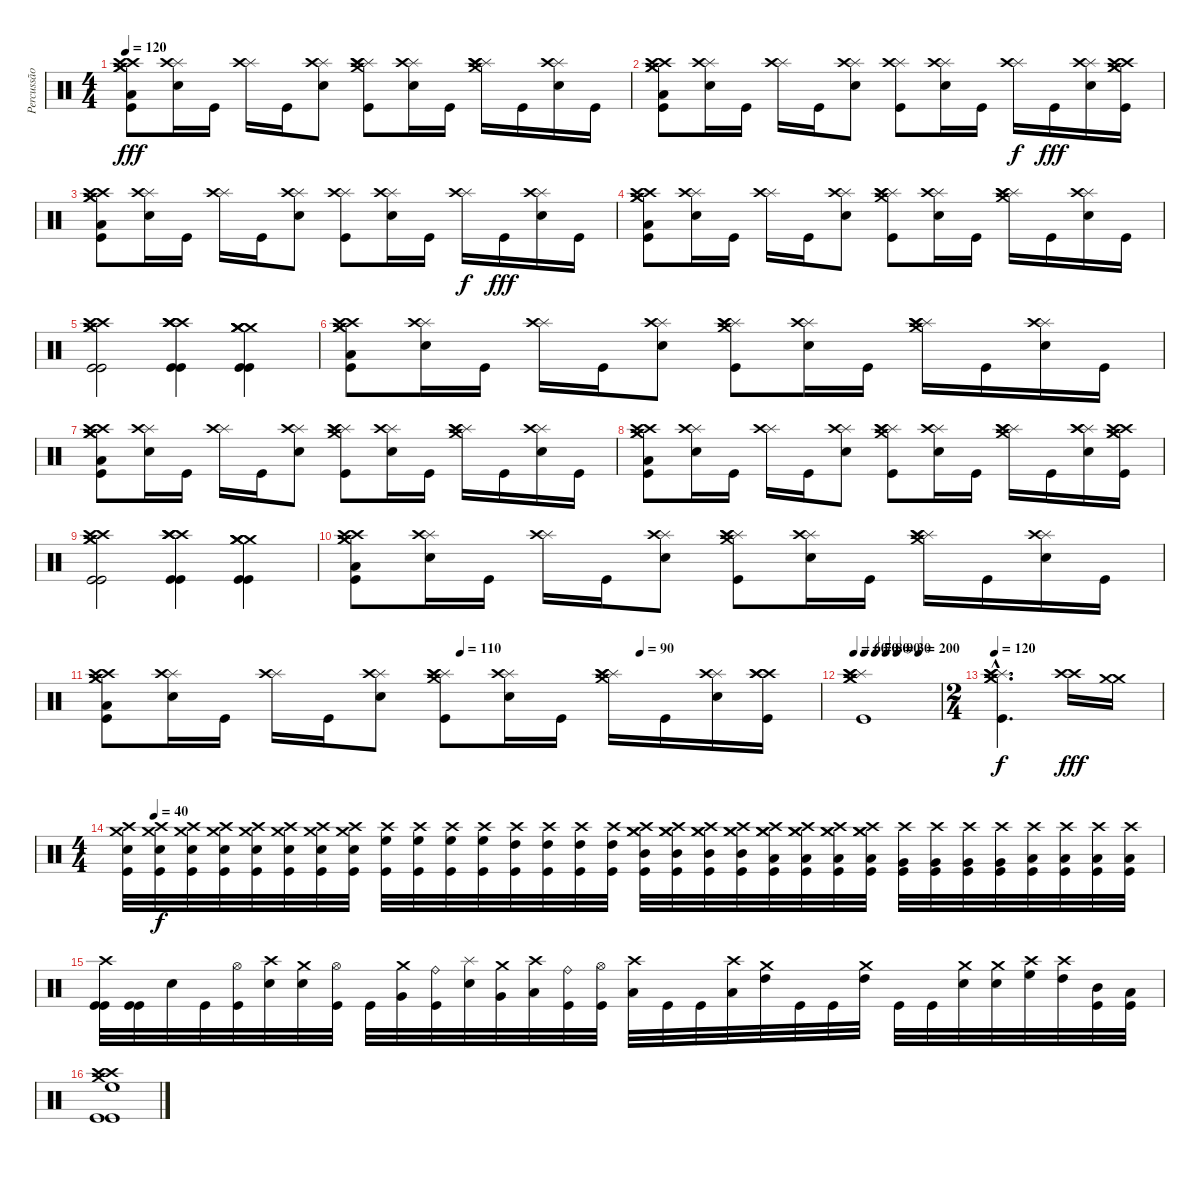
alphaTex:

\track ("Percussão" "Percussão") {instrument percussion}
\staff {score}
\articulation defaults
\ts (4 4)
\tempo 120
\clef neutral
\ks c
("Crash high (hit)" "Crash high (hit)" "Crash medium (hit)" "Crash medium (hit)" "Low Floor Tom (hit)" "Kick (hit)").8{dy fff} ("Splash (hit)" "Crash high (hit)" "Snare (hit) 2").16 "Kick (hit)".16 ("Splash (hit)" "Crash high (hit)").16 "Kick (hit)".16 ("Splash (hit)" "Crash high (hit)" "Snare (hit) 2").8 ("Splash (hit)" "Crash high (hit)" "Crash high (hit)" "Crash medium (hit)" "Kick (hit)").8 ("Splash (hit)" "Crash high (hit)" "Snare (hit) 2").16 "Kick (hit)".16 ("Splash (hit)" "Crash high (hit)" "Crash high (hit)" "Crash medium (hit)").16 "Kick (hit)".16 ("Splash (hit)" "Crash high (hit)" "Snare (hit) 2").16 "Kick (hit)".16 |
("Crash high (hit)" "Crash high (hit)" "Crash medium (hit)" "Crash medium (hit)" "Low Floor Tom (hit)" "Kick (hit)").8 ("Splash (hit)" "Crash high (hit)" "Snare (hit) 2").16 "Kick (hit)".16 ("Splash (hit)" "Crash high (hit)").16 "Kick (hit)".16 ("Splash (hit)" "Crash high (hit)" "Snare (hit) 2").8 ("Splash (hit)" "Crash high (hit)" "Kick (hit)").8 ("Splash (hit)" "Crash high (hit)" "Snare (hit) 2").16 "Kick (hit)".16 ("Splash (hit)" "Crash high (hit)").16{dy f} "Kick (hit)".16{dy fff} ("Splash (hit)" "Crash high (hit)" "Snare (hit) 2").16 ("Crash high (hit)" "Crash high (hit)" "Crash medium (hit)" "Crash medium (hit)" "Kick (hit)").16 |
("Crash high (hit)" "Crash high (hit)" "Crash medium (hit)" "Crash medium (hit)" "Low Floor Tom (hit)" "Kick (hit)").8 ("Splash (hit)" "Crash high (hit)" "Snare (hit) 2").16 "Kick (hit)".16 ("Splash (hit)" "Crash high (hit)").16 "Kick (hit)".16 ("Splash (hit)" "Crash high (hit)" "Snare (hit) 2").8 ("Splash (hit)" "Crash high (hit)" "Kick (hit)").8 ("Splash (hit)" "Crash high (hit)" "Snare (hit) 2").16 "Kick (hit)".16 ("Splash (hit)" "Crash high (hit)").16{dy f} "Kick (hit)".16{dy fff} ("Splash (hit)" "Crash high (hit)" "Snare (hit) 2").16 "Kick (hit)".16 |
("Crash high (hit)" "Crash high (hit)" "Crash medium (hit)" "Crash medium (hit)" "Low Floor Tom (hit)" "Kick (hit)").8 ("Splash (hit)" "Crash high (hit)" "Snare (hit) 2").16 "Kick (hit)".16 ("Splash (hit)" "Crash high (hit)").16 "Kick (hit)".16 ("Splash (hit)" "Crash high (hit)" "Snare (hit) 2").8 ("Splash (hit)" "Crash high (hit)" "Crash high (hit)" "Crash medium (hit)" "Kick (hit)").8 ("Splash (hit)" "Crash high (hit)" "Snare (hit) 2").16 "Kick (hit)".16 ("Splash (hit)" "Crash high (hit)" "Crash high (hit)" "Crash medium (hit)").16 "Kick (hit)".16 ("Splash (hit)" "Crash high (hit)" "Snare (hit) 2").16 "Kick (hit)".16 |
("Crash high (hit)" "Crash high (hit)" "Crash medium (hit)" "Crash medium (hit)" "Kick (hit)" "Kick (hit)").2 ("Crash high (hit)" "Crash high (hit)" "Crash high (hit)" "Crash high (hit)" "Kick (hit)" "Kick (hit)").4 ("Crash medium (hit)" "Crash medium (hit)" "Crash medium (hit)" "Crash medium (hit)" "Kick (hit)" "Kick (hit)").4 |
("Crash high (hit)" "Crash high (hit)" "Crash medium (hit)" "Crash medium (hit)" "Low Floor Tom (hit)" "Kick (hit)").8 ("Splash (hit)" "Crash high (hit)" "Snare (hit) 2").16 "Kick (hit)".16 ("Splash (hit)" "Crash high (hit)").16 "Kick (hit)".16 ("Splash (hit)" "Crash high (hit)" "Snare (hit) 2").8 ("Splash (hit)" "Crash high (hit)" "Crash high (hit)" "Crash medium (hit)" "Kick (hit)").8 ("Splash (hit)" "Crash high (hit)" "Snare (hit) 2").16 "Kick (hit)".16 ("Splash (hit)" "Crash high (hit)" "Crash high (hit)" "Crash medium (hit)").16 "Kick (hit)".16 ("Splash (hit)" "Crash high (hit)" "Snare (hit) 2").16 "Kick (hit)".16 |
("Crash high (hit)" "Crash high (hit)" "Crash medium (hit)" "Crash medium (hit)" "Low Floor Tom (hit)" "Kick (hit)").8 ("Splash (hit)" "Crash high (hit)" "Snare (hit) 2").16 "Kick (hit)".16 ("Splash (hit)" "Crash high (hit)").16 "Kick (hit)".16 ("Splash (hit)" "Crash high (hit)" "Snare (hit) 2").8 ("Splash (hit)" "Crash high (hit)" "Crash high (hit)" "Crash medium (hit)" "Kick (hit)").8 ("Splash (hit)" "Crash high (hit)" "Snare (hit) 2").16 "Kick (hit)".16 ("Splash (hit)" "Crash high (hit)" "Crash high (hit)" "Crash medium (hit)").16 "Kick (hit)".16 ("Splash (hit)" "Crash high (hit)" "Snare (hit) 2").16 "Kick (hit)".16 |
("Crash high (hit)" "Crash high (hit)" "Crash medium (hit)" "Crash medium (hit)" "Low Floor Tom (hit)" "Kick (hit)").8 ("Splash (hit)" "Crash high (hit)" "Snare (hit) 2").16 "Kick (hit)".16 ("Splash (hit)" "Crash high (hit)").16 "Kick (hit)".16 ("Splash (hit)" "Crash high (hit)" "Snare (hit) 2").8 ("Splash (hit)" "Crash high (hit)" "Crash high (hit)" "Crash medium (hit)" "Kick (hit)").8 ("Splash (hit)" "Crash high (hit)" "Snare (hit) 2").16 "Kick (hit)".16 ("Splash (hit)" "Crash high (hit)" "Crash high (hit)" "Crash medium (hit)").16 "Kick (hit)".16 ("Splash (hit)" "Crash high (hit)" "Crash high (hit)" "Snare (hit) 2").16 ("Crash high (hit)" "Crash high (hit)" "Crash medium (hit)" "Crash medium (hit)" "Kick (hit)").16 |
("Crash high (hit)" "Crash high (hit)" "Crash medium (hit)" "Crash medium (hit)" "Kick (hit)" "Kick (hit)").2 ("Crash high (hit)" "Crash high (hit)" "Crash high (hit)" "Crash high (hit)" "Kick (hit)" "Kick (hit)").4 ("Crash medium (hit)" "Crash medium (hit)" "Crash medium (hit)" "Crash medium (hit)" "Kick (hit)" "Kick (hit)").4 |
("Crash high (hit)" "Crash high (hit)" "Crash medium (hit)" "Crash medium (hit)" "Low Floor Tom (hit)" "Kick (hit)").8 ("Splash (hit)" "Crash high (hit)" "Snare (hit) 2").16 "Kick (hit)".16 ("Splash (hit)" "Crash high (hit)").16 "Kick (hit)".16 ("Splash (hit)" "Crash high (hit)" "Snare (hit) 2").8 ("Splash (hit)" "Crash high (hit)" "Crash high (hit)" "Crash medium (hit)" "Kick (hit)").8 ("Splash (hit)" "Crash high (hit)" "Snare (hit) 2").16 "Kick (hit)".16 ("Splash (hit)" "Crash high (hit)" "Crash high (hit)" "Crash medium (hit)").16 "Kick (hit)".16 ("Splash (hit)" "Crash high (hit)" "Snare (hit) 2").16 "Kick (hit)".16 |
\tempo (110 0.5)
\tempo (90 0.75)
("Crash high (hit)" "Crash high (hit)" "Crash medium (hit)" "Crash medium (hit)" "Low Floor Tom (hit)" "Kick (hit)").8 ("Splash (hit)" "Crash high (hit)" "Snare (hit) 2").16 "Kick (hit)".16 ("Splash (hit)" "Crash high (hit)").16 "Kick (hit)".16 ("Splash (hit)" "Crash high (hit)" "Snare (hit) 2").8 ("Splash (hit)" "Crash high (hit)" "Crash high (hit)" "Crash medium (hit)" "Kick (hit)").8 ("Splash (hit)" "Crash high (hit)" "Snare (hit) 2").16 "Kick (hit)".16 ("Splash (hit)" "Crash high (hit)" "Crash high (hit)" "Crash medium (hit)").16 "Kick (hit)".16 ("Splash (hit)" "Crash high (hit)" "Snare (hit) 2").16 ("Crash high (hit)" "Crash high (hit)" "Crash high (hit)" "Kick (hit)").16 |
\tempo 60
\tempo (70 0.125)
\tempo (80 0.25)
\tempo (90 0.375)
\tempo (30 0.5)
\tempo (200 0.75)
("Splash (hit)" "Crash high (hit)" "Crash high (hit)" "Crash medium (hit)" "Crash medium (hit)" "Kick (hit)").1 |
\ts (2 4)
\tempo 120
("Splash (hit)"{hac} "Crash high (hit)"{hac} "Crash high (hit)"{hac} "Crash medium (hit)"{hac} "Crash medium (hit)"{hac} "Kick (hit)"{hac}).4{d dy f} ("Crash high (hit)" "Crash high (hit)").16{dy fff} ("Crash medium (hit)" "Crash medium (hit)").16 |
\ts (4 4)
\tempo (40 0.03125)
("Crash medium (hit)" "Crash high (hit)" "Snare (hit) 2" "Kick (hit)").32{balance 1} ("Crash medium (hit)" "Crash high (hit)" "Snare (hit) 2" "Kick (hit)").32{dy f balance 15} ("Crash medium (hit)" "Crash high (hit)" "Snare (hit) 2" "Kick (hit)").32 ("Crash medium (hit)" "Crash high (hit)" "Snare (hit) 2" "Kick (hit)").32 ("Crash medium (hit)" "Crash high (hit)" "Electric Snare (hit)" "Kick (hit)").32 ("Crash medium (hit)" "Crash high (hit)" "Electric Snare (hit)" "Kick (hit)").32 ("Crash medium (hit)" "Crash high (hit)" "Electric Snare (hit)" "Kick (hit)").32 ("Crash medium (hit)" "Crash high (hit)" "Electric Snare (hit)" "Kick (hit)").32 ("Crash high (hit)" "High Floor Tom (hit)" "Kick (hit)").32 ("Crash high (hit)" "High Floor Tom (hit)" "Kick (hit)").32 ("Crash high (hit)" "High Floor Tom (hit)" "Kick (hit)").32 ("Crash high (hit)" "High Floor Tom (hit)" "Kick (hit)").32 ("Crash high (hit)" "High Tom (hit)" "Kick (hit)").32 ("Crash high (hit)" "High Tom (hit)" "Kick (hit)").32 ("Crash high (hit)" "High Tom (hit)" "Kick (hit)").32 ("Crash high (hit)" "High Tom (hit)" "Kick (hit)").32 ("Crash medium (hit)" "Crash high (hit)" "Crash medium (hit)" "Mid Tom (hit)" "Kick (hit)").32 ("Crash medium (hit)" "Crash high (hit)" "Crash medium (hit)" "Mid Tom (hit)" "Kick (hit)").32 ("Crash medium (hit)" "Crash high (hit)" "Crash medium (hit)" "Mid Tom (hit)" "Kick (hit)").32 ("Crash medium (hit)" "Crash high (hit)" "Crash medium (hit)" "Mid Tom (hit)" "Kick (hit)").32 ("Crash medium (hit)" "Crash high (hit)" "Crash medium (hit)" "Low Tom (hit)" "Kick (hit)").32 ("Crash medium (hit)" "Crash high (hit)" "Crash medium (hit)" "Low Tom (hit)" "Kick (hit)").32 ("Crash medium (hit)" "Crash high (hit)" "Crash medium (hit)" "Low Tom (hit)" "Kick (hit)").32 ("Crash medium (hit)" "Crash high (hit)" "Crash medium (hit)" "Low Tom (hit)" "Kick (hit)").32 ("Crash high (hit)" "Very Low Tom (hit)" "Kick (hit)").32 ("Crash high (hit)" "Very Low Tom (hit)" "Kick (hit)").32 ("Crash high (hit)" "Very Low Tom (hit)" "Kick (hit)").32 ("Crash high (hit)" "Very Low Tom (hit)" "Kick (hit)").32 ("Crash high (hit)" "Low Floor Tom (hit)" "Kick (hit)").32 ("Crash high (hit)" "Low Floor Tom (hit)" "Kick (hit)").32 ("Crash high (hit)" "Low Floor Tom (hit)" "Kick (hit)").32 ("Crash high (hit)" "Low Floor Tom (hit)" "Kick (hit)").32 |
("Crash high (hit)" "Kick (hit)" "Kick (hit)").32{balance 8} ("Kick (hit)" "Kick (hit)").32 "Electric Snare (hit)".32 "Kick (hit)".32 ("Hi-Hat (open)" "Kick (hit)").32 ("Crash high (hit)" "Electric Snare (hit)").32 ("Crash medium (hit)" "Snare (hit) 2").32 ("Hi-Hat (open)" "Kick (hit)").32 "Kick (hit)".32 ("Crash medium (hit)" "Very Low Tom (hit)").32 ("Ride (bell)" "Kick (hit)").32 ("Splash (hit)" "Snare (hit) 2").32 ("Crash medium (hit)" "Very Low Tom (hit)").32 ("Crash high (hit)" "Low Tom (hit)").32 ("Ride (bell)" "Kick (hit)").32 ("Hi-Hat (open)" "Kick (hit)").32 ("Crash high (hit)" "Low Tom (hit)").32 "Kick (hit)".32 "Kick (hit)".32 ("Crash high (hit)" "Low Tom (hit)").32 ("Crash medium (hit)" "High Tom (hit)").32 "Kick (hit)".32 "Kick (hit)".32 ("Crash medium (hit)" "High Tom (hit)").32 "Kick (hit)".32 "Kick (hit)".32 ("Crash medium (hit)" "Electric Snare (hit)").32 ("Crash medium (hit)" "Snare (hit) 2").32 ("Crash high (hit)" "High Floor Tom (hit)").32 ("Crash high (hit)" "High Tom (hit)").32 ("Mid Tom (hit)" "Kick (hit)").32 ("Low Tom (hit)" "Kick (hit)").32 |
("Crash medium (hit)" "Crash high (hit)" "Crash high (hit)" "High Floor Tom (hit)" "Kick (hit)" "Kick (hit)").1
